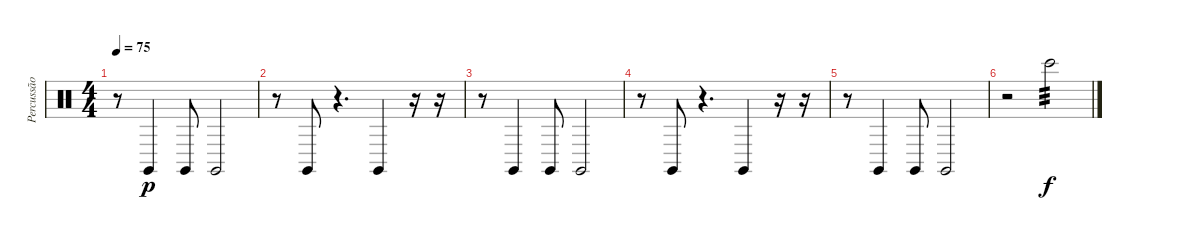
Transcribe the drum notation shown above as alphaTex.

\track ("Percussão" "Percussão") {instrument percussion}
\staff {score}
\articulation defaults
\ts (4 4)
\tempo 75
\clef neutral
\ks c
r.8{dy p} "Claves (hit)".4 "Claves (hit)".8 "Claves (hit)".2 |
r.8 "Claves (hit)".8 r.4{d} "Claves (hit)".4 r.16 r.16 |
r.8 "Claves (hit)".4 "Claves (hit)".8 "Claves (hit)".2 |
r.8 "Claves (hit)".8 r.4{d} "Claves (hit)".4 r.16 r.16 |
r.8 "Claves (hit)".4 "Claves (hit)".8 "Claves (hit)".2 |
r.2 "Bongo High (hit)".2{tp 3 dy f volume 0}
